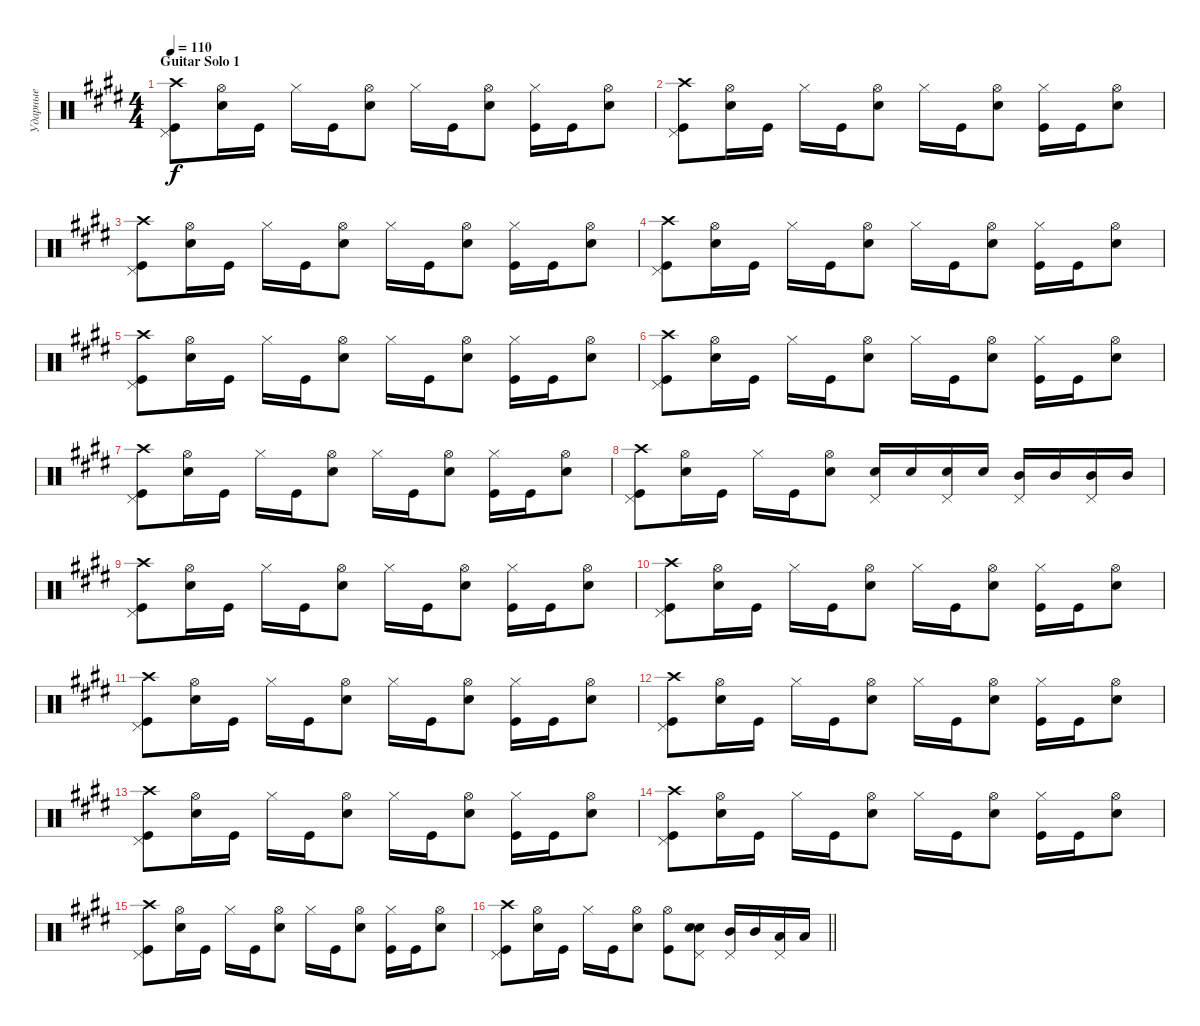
\track ("Ударные" "Ударные") {instrument percussion}
\staff {score}
\articulation defaults
\ts (4 4)
\section ("" "Guitar Solo 1")
\tempo 110
\clef neutral
\ks c#minor
("Kick (hit)" "Crash high (hit)" "Pedal Hi-Hat (hit)").8{dy f} ("Snare (hit) 2" "Hi-Hat (open)").16 "Kick (hit)".16 "Hi-Hat (closed)".16 "Kick (hit)".16 ("Snare (hit) 2" "Hi-Hat (open)").8 "Hi-Hat (closed)".16 "Kick (hit)".16 ("Snare (hit) 2" "Hi-Hat (open)").8 ("Kick (hit)" "Hi-Hat (closed)").16 "Kick (hit)".16 ("Snare (hit) 2" "Hi-Hat (open)").8 |
("Kick (hit)" "Crash high (hit)" "Pedal Hi-Hat (hit)").8 ("Snare (hit) 2" "Hi-Hat (open)").16 "Kick (hit)".16 "Hi-Hat (closed)".16 "Kick (hit)".16 ("Snare (hit) 2" "Hi-Hat (open)").8 "Hi-Hat (closed)".16 "Kick (hit)".16 ("Snare (hit) 2" "Hi-Hat (open)").8 ("Kick (hit)" "Hi-Hat (closed)").16 "Kick (hit)".16 ("Snare (hit) 2" "Hi-Hat (open)").8 |
("Kick (hit)" "Crash high (hit)" "Pedal Hi-Hat (hit)").8 ("Snare (hit) 2" "Hi-Hat (open)").16 "Kick (hit)".16 "Hi-Hat (closed)".16 "Kick (hit)".16 ("Snare (hit) 2" "Hi-Hat (open)").8 "Hi-Hat (closed)".16 "Kick (hit)".16 ("Snare (hit) 2" "Hi-Hat (open)").8 ("Kick (hit)" "Hi-Hat (closed)").16 "Kick (hit)".16 ("Snare (hit) 2" "Hi-Hat (open)").8 |
("Kick (hit)" "Crash high (hit)" "Pedal Hi-Hat (hit)").8 ("Snare (hit) 2" "Hi-Hat (open)").16 "Kick (hit)".16 "Hi-Hat (closed)".16 "Kick (hit)".16 ("Snare (hit) 2" "Hi-Hat (open)").8 "Hi-Hat (closed)".16 "Kick (hit)".16 ("Snare (hit) 2" "Hi-Hat (open)").8 ("Kick (hit)" "Hi-Hat (closed)").16 "Kick (hit)".16 ("Snare (hit) 2" "Hi-Hat (open)").8 |
("Kick (hit)" "Crash high (hit)" "Pedal Hi-Hat (hit)").8 ("Snare (hit) 2" "Hi-Hat (open)").16 "Kick (hit)".16 "Hi-Hat (closed)".16 "Kick (hit)".16 ("Snare (hit) 2" "Hi-Hat (open)").8 "Hi-Hat (closed)".16 "Kick (hit)".16 ("Snare (hit) 2" "Hi-Hat (open)").8 ("Kick (hit)" "Hi-Hat (closed)").16 "Kick (hit)".16 ("Snare (hit) 2" "Hi-Hat (open)").8 |
("Kick (hit)" "Crash high (hit)" "Pedal Hi-Hat (hit)").8 ("Snare (hit) 2" "Hi-Hat (open)").16 "Kick (hit)".16 "Hi-Hat (closed)".16 "Kick (hit)".16 ("Snare (hit) 2" "Hi-Hat (open)").8 "Hi-Hat (closed)".16 "Kick (hit)".16 ("Snare (hit) 2" "Hi-Hat (open)").8 ("Kick (hit)" "Hi-Hat (closed)").16 "Kick (hit)".16 ("Snare (hit) 2" "Hi-Hat (open)").8 |
("Kick (hit)" "Crash high (hit)" "Pedal Hi-Hat (hit)").8 ("Snare (hit) 2" "Hi-Hat (open)").16 "Kick (hit)".16 "Hi-Hat (closed)".16 "Kick (hit)".16 ("Snare (hit) 2" "Hi-Hat (open)").8 "Hi-Hat (closed)".16 "Kick (hit)".16 ("Snare (hit) 2" "Hi-Hat (open)").8 ("Kick (hit)" "Hi-Hat (closed)").16 "Kick (hit)".16 ("Snare (hit) 2" "Hi-Hat (open)").8 |
("Kick (hit)" "Crash high (hit)" "Pedal Hi-Hat (hit)").8 ("Snare (hit) 2" "Hi-Hat (open)").16 "Kick (hit)".16 "Hi-Hat (closed)".16 "Kick (hit)".16 ("Snare (hit) 2" "Hi-Hat (open)").8 ("Snare (hit) 2" "Pedal Hi-Hat (hit)").16 "Snare (hit) 2".16 ("Snare (hit) 2" "Pedal Hi-Hat (hit)").16 "Snare (hit) 2".16 ("Mid Tom (hit)" "Pedal Hi-Hat (hit)").16 "Mid Tom (hit)".16 ("Mid Tom (hit)" "Pedal Hi-Hat (hit)").16 "Mid Tom (hit)".16 |
("Kick (hit)" "Crash high (hit)" "Pedal Hi-Hat (hit)").8 ("Snare (hit) 2" "Hi-Hat (open)").16 "Kick (hit)".16 "Hi-Hat (closed)".16 "Kick (hit)".16 ("Snare (hit) 2" "Hi-Hat (open)").8 "Hi-Hat (closed)".16 "Kick (hit)".16 ("Snare (hit) 2" "Hi-Hat (open)").8 ("Kick (hit)" "Hi-Hat (closed)").16 "Kick (hit)".16 ("Snare (hit) 2" "Hi-Hat (open)").8 |
("Kick (hit)" "Crash high (hit)" "Pedal Hi-Hat (hit)").8 ("Snare (hit) 2" "Hi-Hat (open)").16 "Kick (hit)".16 "Hi-Hat (closed)".16 "Kick (hit)".16 ("Snare (hit) 2" "Hi-Hat (open)").8 "Hi-Hat (closed)".16 "Kick (hit)".16 ("Snare (hit) 2" "Hi-Hat (open)").8 ("Kick (hit)" "Hi-Hat (closed)").16 "Kick (hit)".16 ("Snare (hit) 2" "Hi-Hat (open)").8 |
("Kick (hit)" "Crash high (hit)" "Pedal Hi-Hat (hit)").8 ("Snare (hit) 2" "Hi-Hat (open)").16 "Kick (hit)".16 "Hi-Hat (closed)".16 "Kick (hit)".16 ("Snare (hit) 2" "Hi-Hat (open)").8 "Hi-Hat (closed)".16 "Kick (hit)".16 ("Snare (hit) 2" "Hi-Hat (open)").8 ("Kick (hit)" "Hi-Hat (closed)").16 "Kick (hit)".16 ("Snare (hit) 2" "Hi-Hat (open)").8 |
("Kick (hit)" "Crash high (hit)" "Pedal Hi-Hat (hit)").8 ("Snare (hit) 2" "Hi-Hat (open)").16 "Kick (hit)".16 "Hi-Hat (closed)".16 "Kick (hit)".16 ("Snare (hit) 2" "Hi-Hat (open)").8 "Hi-Hat (closed)".16 "Kick (hit)".16 ("Snare (hit) 2" "Hi-Hat (open)").8 ("Kick (hit)" "Hi-Hat (closed)").16 "Kick (hit)".16 ("Snare (hit) 2" "Hi-Hat (open)").8 |
("Kick (hit)" "Crash high (hit)" "Pedal Hi-Hat (hit)").8 ("Snare (hit) 2" "Hi-Hat (open)").16 "Kick (hit)".16 "Hi-Hat (closed)".16 "Kick (hit)".16 ("Snare (hit) 2" "Hi-Hat (open)").8 "Hi-Hat (closed)".16 "Kick (hit)".16 ("Snare (hit) 2" "Hi-Hat (open)").8 ("Kick (hit)" "Hi-Hat (closed)").16 "Kick (hit)".16 ("Snare (hit) 2" "Hi-Hat (open)").8 |
("Kick (hit)" "Crash high (hit)" "Pedal Hi-Hat (hit)").8 ("Snare (hit) 2" "Hi-Hat (open)").16 "Kick (hit)".16 "Hi-Hat (closed)".16 "Kick (hit)".16 ("Snare (hit) 2" "Hi-Hat (open)").8 "Hi-Hat (closed)".16 "Kick (hit)".16 ("Snare (hit) 2" "Hi-Hat (open)").8 ("Kick (hit)" "Hi-Hat (closed)").16 "Kick (hit)".16 ("Snare (hit) 2" "Hi-Hat (open)").8 |
("Kick (hit)" "Crash high (hit)" "Pedal Hi-Hat (hit)").8 ("Snare (hit) 2" "Hi-Hat (open)").16 "Kick (hit)".16 "Hi-Hat (closed)".16 "Kick (hit)".16 ("Snare (hit) 2" "Hi-Hat (open)").8 "Hi-Hat (closed)".16 "Kick (hit)".16 ("Snare (hit) 2" "Hi-Hat (open)").8 ("Kick (hit)" "Hi-Hat (closed)").16 "Kick (hit)".16 ("Snare (hit) 2" "Hi-Hat (open)").8 |
\barLineRight lightlight
("Kick (hit)" "Crash high (hit)" "Pedal Hi-Hat (hit)").8 ("Snare (hit) 2" "Hi-Hat (open)").16 "Kick (hit)".16 "Hi-Hat (closed)".16 "Kick (hit)".16 ("Snare (hit) 2" "Hi-Hat (open)").8 ("Kick (hit)" "Hi-Hat (open)").8 ("Snare (hit) 2" "Pedal Hi-Hat (hit)" "Snare (hit) 2").8{bd 60} ("Mid Tom (hit)" "Pedal Hi-Hat (hit)").16 "Mid Tom (hit)".16 ("Low Tom (hit)" "Pedal Hi-Hat (hit)").16 "Low Tom (hit)".16
